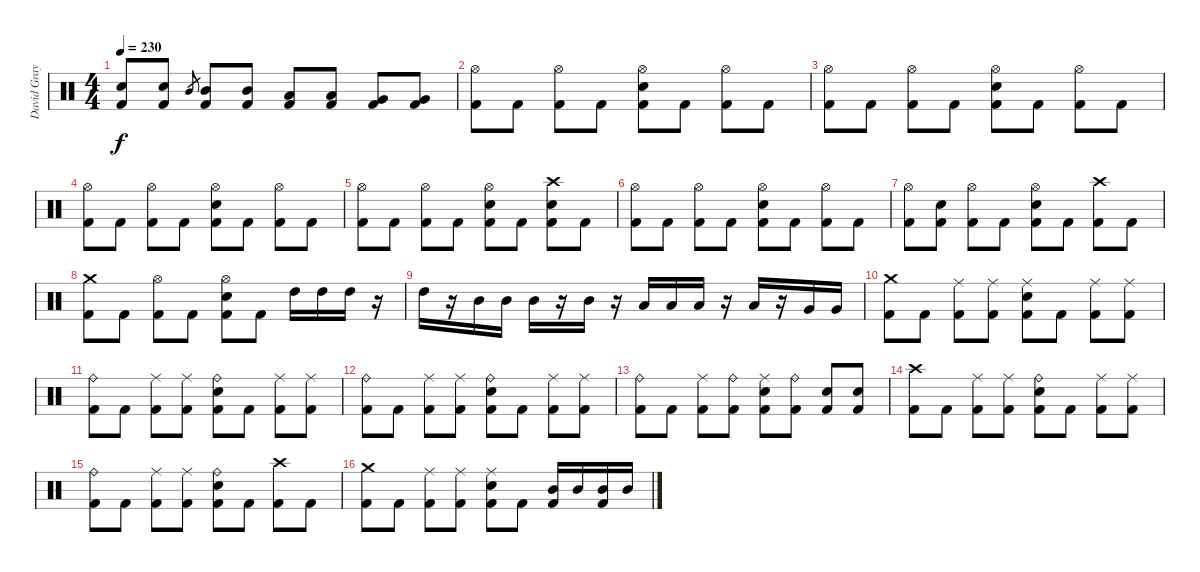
\track ("David Gray" "David Gray") {instrument percussion}
\staff {score}
\articulation defaults
\ts (4 4)
\tempo 230
\clef neutral
\ks c
("Electric Snare (hit)" "Kick (hit) 2").8{dy f} ("Electric Snare (hit)" "Kick (hit) 2").8 "Mid Tom (hit)".8{gr} ("Mid Tom (hit)" "Kick (hit) 2").8 ("Mid Tom (hit)" "Kick (hit) 2").8 ("Low Tom (hit)" "Kick (hit) 2").8 ("Low Tom (hit)" "Kick (hit) 2").8 ("Very Low Tom (hit)" "Kick (hit) 2").8 ("Very Low Tom (hit)" "Kick (hit) 2").8 |
("Hi-Hat (open)" "Kick (hit) 2").8 "Kick (hit) 2".8 ("Hi-Hat (open)" "Kick (hit) 2").8 "Kick (hit) 2".8 ("Hi-Hat (open)" "Electric Snare (hit)" "Kick (hit) 2").8 "Kick (hit) 2".8 ("Hi-Hat (open)" "Kick (hit) 2").8 "Kick (hit) 2".8 |
("Hi-Hat (open)" "Kick (hit) 2").8 "Kick (hit) 2".8 ("Hi-Hat (open)" "Kick (hit) 2").8 "Kick (hit) 2".8 ("Hi-Hat (open)" "Electric Snare (hit)" "Kick (hit) 2").8 "Kick (hit) 2".8 ("Hi-Hat (open)" "Kick (hit) 2").8 "Kick (hit) 2".8 |
("Hi-Hat (open)" "Kick (hit) 2").8 "Kick (hit) 2".8 ("Hi-Hat (open)" "Kick (hit) 2").8 "Kick (hit) 2".8 ("Hi-Hat (open)" "Electric Snare (hit)" "Kick (hit) 2").8 "Kick (hit) 2".8 ("Hi-Hat (open)" "Kick (hit) 2").8 "Kick (hit) 2".8 |
("Hi-Hat (open)" "Kick (hit) 2").8 "Kick (hit) 2".8 ("Hi-Hat (open)" "Kick (hit) 2").8 "Kick (hit) 2".8 ("Hi-Hat (open)" "Electric Snare (hit)" "Kick (hit) 2").8 "Kick (hit) 2".8 ("Crash high (hit)" "Electric Snare (hit)" "Kick (hit) 2").8 "Kick (hit) 2".8 |
("Hi-Hat (open)" "Kick (hit) 2").8 "Kick (hit) 2".8 ("Hi-Hat (open)" "Kick (hit) 2").8 "Kick (hit) 2".8 ("Hi-Hat (open)" "Electric Snare (hit)" "Kick (hit) 2").8 "Kick (hit) 2".8 ("Hi-Hat (open)" "Kick (hit) 2").8 "Kick (hit) 2".8 |
("Hi-Hat (open)" "Kick (hit) 2").8 ("Electric Snare (hit)" "Kick (hit) 2").8 ("Hi-Hat (open)" "Kick (hit) 2").8 "Kick (hit) 2".8 ("Hi-Hat (open)" "Electric Snare (hit)" "Kick (hit) 2").8 "Kick (hit) 2".8 ("Crash high (hit)" "Kick (hit) 2").8 "Kick (hit) 2".8 |
("Crash medium (hit)" "Kick (hit) 2").8 "Kick (hit) 2".8 ("Hi-Hat (open)" "Kick (hit) 2").8 "Kick (hit) 2".8 ("Hi-Hat (open)" "Electric Snare (hit)" "Kick (hit) 2").8 "Kick (hit) 2".8 "High Tom (hit)".16 "High Tom (hit)".16 "High Tom (hit)".16 r.16 |
"High Tom (hit)".16 r.16 "Mid Tom (hit)".16 "Mid Tom (hit)".16 "Mid Tom (hit)".16 r.16 "Mid Tom (hit)".16 r.16 "Low Tom (hit)".16 "Low Tom (hit)".16 "Low Tom (hit)".16 r.16 "Low Tom (hit)".16 r.16 "Very Low Tom (hit)".16 "Very Low Tom (hit)".16 |
("Crash medium (hit)" "Kick (hit) 2").8 "Kick (hit) 2".8 ("Ride (middle)" "Kick (hit) 2").8 ("Ride (middle)" "Kick (hit) 2").8 ("Ride (middle)" "Electric Snare (hit)" "Kick (hit) 2").8 "Kick (hit) 2".8 ("Ride (middle)" "Kick (hit) 2").8 ("Ride (middle)" "Kick (hit) 2").8 |
("Ride (bell)" "Kick (hit) 2").8 "Kick (hit) 2".8 ("Ride (middle)" "Kick (hit) 2").8 ("Ride (middle)" "Kick (hit) 2").8 ("Ride (bell)" "Electric Snare (hit)" "Kick (hit) 2").8 "Kick (hit) 2".8 ("Ride (middle)" "Kick (hit) 2").8 ("Ride (middle)" "Kick (hit) 2").8 |
("Ride (bell)" "Kick (hit) 2").8 "Kick (hit) 2".8 ("Ride (middle)" "Kick (hit) 2").8 ("Ride (middle)" "Kick (hit) 2").8 ("Ride (bell)" "Electric Snare (hit)" "Kick (hit) 2").8 "Kick (hit) 2".8 ("Ride (middle)" "Kick (hit) 2").8 ("Ride (middle)" "Kick (hit) 2").8 |
("Ride (bell)" "Kick (hit) 2").8 "Kick (hit) 2".8 ("Ride (middle)" "Kick (hit) 2").8 ("Ride (bell)" "Kick (hit) 2").8 ("Ride (middle)" "Electric Snare (hit)" "Kick (hit) 2").8 ("Ride (bell)" "Kick (hit) 2").8 ("Electric Snare (hit)" "Kick (hit) 2").8 ("Electric Snare (hit)" "Kick (hit) 2").8 |
("Crash high (hit)" "Kick (hit) 2").8 "Kick (hit) 2".8 ("Ride (middle)" "Kick (hit) 2").8 ("Ride (middle)" "Kick (hit) 2").8 ("Ride (bell)" "Electric Snare (hit)" "Kick (hit) 2").8 "Kick (hit) 2".8 ("Ride (middle)" "Kick (hit) 2").8 ("Ride (middle)" "Kick (hit) 2").8 |
("Ride (bell)" "Kick (hit) 2").8 "Kick (hit) 2".8 ("Ride (middle)" "Kick (hit) 2").8 ("Ride (middle)" "Kick (hit) 2").8 ("Ride (bell)" "Electric Snare (hit)" "Kick (hit) 2").8 "Kick (hit) 2".8 ("Crash high (hit)" "Kick (hit) 2").8 "Kick (hit) 2".8 |
("Crash medium (hit)" "Kick (hit) 2").8 "Kick (hit) 2".8 ("Ride (middle)" "Kick (hit) 2").8 ("Ride (middle)" "Kick (hit) 2").8 ("Ride (middle)" "Electric Snare (hit)" "Kick (hit) 2").8 "Kick (hit) 2".8 ("Mid Tom (hit)" "Kick (hit) 2").16 "Mid Tom (hit)".16 ("Mid Tom (hit)" "Kick (hit) 2").16 "Mid Tom (hit)".16
